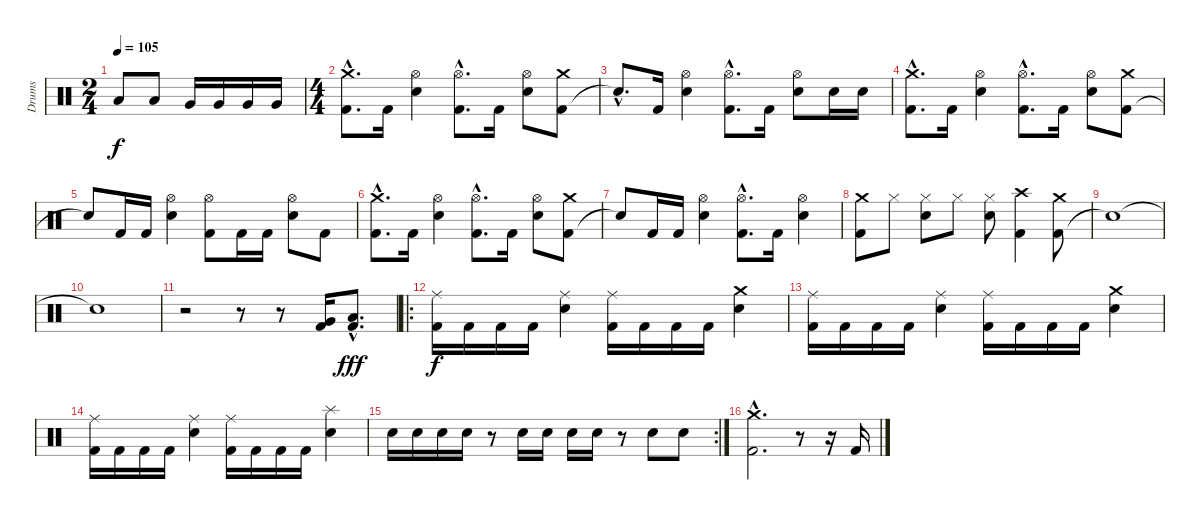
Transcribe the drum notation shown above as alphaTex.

\track ("Drums" "Drums") {instrument percussion}
\staff {score}
\articulation defaults
\ts (2 4)
\tempo 105
\clef neutral
\ks c "Low Tom (hit)".8{dy f} "Low Tom (hit)".8 "Very Low Tom (hit)".16 "Very Low Tom (hit)".16 "Very Low Tom (hit)".16 "Very Low Tom (hit)".16
|
\ts (4 4)
("Kick (hit) 2"{hac} "Crash medium (hit)"{hac}).8{d} "Kick (hit) 2".16 ("Electric Snare (hit)" "Hi-Hat (open)").4 ("Kick (hit) 2"{hac} "Hi-Hat (open)"{hac}).8{d} "Kick (hit) 2".16 ("Electric Snare (hit)" "Hi-Hat (open)").8 ("Kick (hit) 2" "Crash medium (hit)").8 |
"Snare (hit)"{hac t}.8{d} "Kick (hit) 2".16 ("Electric Snare (hit)" "Hi-Hat (open)").4 ("Kick (hit) 2"{hac} "Hi-Hat (open)"{hac}).8{d} "Kick (hit) 2".16 ("Electric Snare (hit)" "Hi-Hat (open)").8 "Electric Snare (hit)".16 "Electric Snare (hit)".16 |
("Kick (hit) 2"{hac} "Crash medium (hit)"{hac}).8{d} "Kick (hit) 2".16 ("Electric Snare (hit)" "Hi-Hat (open)").4 ("Kick (hit) 2"{hac} "Hi-Hat (open)"{hac}).8{d} "Kick (hit) 2".16 ("Electric Snare (hit)" "Hi-Hat (open)").8 ("Kick (hit) 2" "Crash medium (hit)").8 |
"Snare (hit)"{t}.8 "Kick (hit) 2".16 "Kick (hit) 2".16 ("Electric Snare (hit)" "Hi-Hat (open)").4 ("Kick (hit) 2" "Hi-Hat (open)").8 "Kick (hit) 2".16 "Kick (hit) 2".16 ("Electric Snare (hit)" "Hi-Hat (open)").8 "Kick (hit) 2".8 |
("Kick (hit) 2"{hac} "Crash medium (hit)"{hac}).8{d} "Kick (hit) 2".16 ("Electric Snare (hit)" "Hi-Hat (open)").4 ("Kick (hit) 2"{hac} "Hi-Hat (open)"{hac}).8{d} "Kick (hit) 2".16 ("Electric Snare (hit)" "Hi-Hat (open)").8 ("Kick (hit) 2" "Crash medium (hit)").8 |
"Snare (hit)"{t}.8 "Kick (hit) 2".16 "Kick (hit) 2".16 ("Electric Snare (hit)" "Hi-Hat (open)").4 ("Kick (hit) 2"{hac} "Hi-Hat (open)"{hac}).8{d} "Kick (hit) 2".16 ("Electric Snare (hit)" "Hi-Hat (open)").4 |
("Kick (hit) 2" "Crash medium (hit)").8 "Hi-Hat (closed)".8 ("Electric Snare (hit)" "Hi-Hat (closed)").8 "Hi-Hat (closed)".8 ("Electric Snare (hit)" "Hi-Hat (closed)").8 ("Kick (hit) 2" "Crash high (hit)").4 ("Kick (hit) 2" "Crash medium (hit)").8 |
"Snare (hit)"{t}.1 |
"Snare (hit)"{t}.1 |
r.2 r.8 r.8 ("Kick (hit) 2" "Very Low Tom (hit)").16 ("Kick (hit) 2"{hac} "Low Tom (hit)"{hac}).8{d dy fff} |
\ro
("Kick (hit) 2" "Ride (middle)").16{dy f} "Kick (hit) 2".16 "Kick (hit) 2".16 "Kick (hit) 2".16 ("Electric Snare (hit)" "Ride (middle)").4 ("Kick (hit) 2" "Ride (middle)").16 "Kick (hit) 2".16 "Kick (hit) 2".16 "Kick (hit) 2".16 ("Electric Snare (hit)" "Crash medium (hit)").4 |
("Kick (hit) 2" "Ride (middle)").16 "Kick (hit) 2".16 "Kick (hit) 2".16 "Kick (hit) 2".16 ("Electric Snare (hit)" "Ride (middle)").4 ("Kick (hit) 2" "Ride (middle)").16 "Kick (hit) 2".16 "Kick (hit) 2".16 "Kick (hit) 2".16 ("Electric Snare (hit)" "Crash medium (hit)").4 |
("Kick (hit) 2" "Ride (middle)").16 "Kick (hit) 2".16 "Kick (hit) 2".16 "Kick (hit) 2".16 ("Electric Snare (hit)" "Ride (middle)").4 ("Kick (hit) 2" "Ride (middle)").16 "Kick (hit) 2".16 "Kick (hit) 2".16 "Kick (hit) 2".16 ("Electric Snare (hit)" "Splash (hit)").4 |
\rc 2 "Electric Snare (hit)".16 "Electric Snare (hit)".16 "Electric Snare (hit)".16 "Electric Snare (hit)".16
r.8 "Electric Snare (hit)".16 "Electric Snare (hit)".16 "Electric Snare (hit)".16 "Electric Snare (hit)".16 r.8 "Electric Snare (hit)".8 "Electric Snare (hit)".8 |
("Kick (hit) 2"{hac} "Crash medium (hit)"{hac}).2{d} r.8 r.16 "Kick (hit) 2".16
